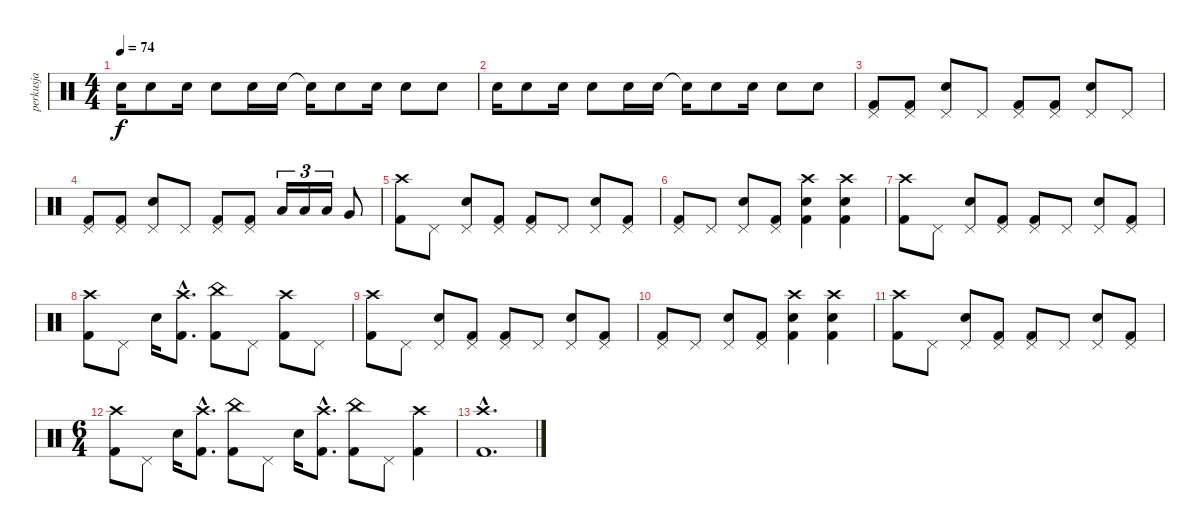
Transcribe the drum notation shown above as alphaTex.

\track ("perkusja" "perkusja") {instrument percussion}
\staff {score}
\articulation defaults
\ts (4 4)
\tempo 74
\clef neutral
\ks c "Electric Snare (hit)".16{dy f} "Electric Snare (hit)".8 "Electric Snare (hit)".16 "Electric Snare (hit)".8 "Electric Snare (hit)".16 "Electric Snare (hit)".16 "Snare (hit)"{t}.16 "Electric Snare (hit)".8 "Electric Snare (hit)".16 "Electric Snare (hit)".8 "Electric Snare (hit)".8
|
"Electric Snare (hit)".16 "Electric Snare (hit)".8 "Electric Snare (hit)".16 "Electric Snare (hit)".8 "Electric Snare (hit)".16 "Electric Snare (hit)".16 "Snare (hit)"{t}.16 "Electric Snare (hit)".8 "Electric Snare (hit)".16 "Electric Snare (hit)".8 "Electric Snare (hit)".8 |
("Pedal Hi-Hat (hit)" "Kick (hit) 2").8 ("Pedal Hi-Hat (hit)" "Kick (hit) 2").8 ("Pedal Hi-Hat (hit)" "Electric Snare (hit)").8 "Pedal Hi-Hat (hit)".8 ("Pedal Hi-Hat (hit)" "Kick (hit) 2").8 ("Pedal Hi-Hat (hit)" "Kick (hit) 2").8 ("Pedal Hi-Hat (hit)" "Electric Snare (hit)").8 "Pedal Hi-Hat (hit)".8 |
("Pedal Hi-Hat (hit)" "Kick (hit) 2").8 ("Pedal Hi-Hat (hit)" "Kick (hit) 2").8 ("Pedal Hi-Hat (hit)" "Electric Snare (hit)").8 "Pedal Hi-Hat (hit)".8 ("Pedal Hi-Hat (hit)" "Kick (hit) 2").8 ("Pedal Hi-Hat (hit)" "Kick (hit) 2").8 "Low Tom (hit)".16{tu (3 2)} "Low Tom (hit)".16{tu (3 2)} "Low Tom (hit)".16{tu (3 2)} "Very Low Tom (hit)".8 |
("Crash high (hit)" "Kick (hit) 2").8 "Pedal Hi-Hat (hit)".8 ("Pedal Hi-Hat (hit)" "Electric Snare (hit)").8 ("Pedal Hi-Hat (hit)" "Kick (hit) 2").8 ("Pedal Hi-Hat (hit)" "Kick (hit) 2").8 "Pedal Hi-Hat (hit)".8 ("Pedal Hi-Hat (hit)" "Electric Snare (hit)").8 ("Pedal Hi-Hat (hit)" "Kick (hit) 2").8 |
("Pedal Hi-Hat (hit)" "Kick (hit) 2").8 "Pedal Hi-Hat (hit)".8 ("Pedal Hi-Hat (hit)" "Electric Snare (hit)").8 ("Pedal Hi-Hat (hit)" "Kick (hit) 2").8 ("Crash high (hit)" "Kick (hit) 2" "Electric Snare (hit)").4 ("Crash high (hit)" "Electric Snare (hit)" "Kick (hit) 2").4 |
("Crash high (hit)" "Kick (hit) 2").8 "Pedal Hi-Hat (hit)".8 ("Pedal Hi-Hat (hit)" "Electric Snare (hit)").8 ("Pedal Hi-Hat (hit)" "Kick (hit) 2").8 ("Pedal Hi-Hat (hit)" "Kick (hit) 2").8 "Pedal Hi-Hat (hit)".8 ("Pedal Hi-Hat (hit)" "Electric Snare (hit)").8 ("Pedal Hi-Hat (hit)" "Kick (hit) 2").8 |
("Crash high (hit)" "Kick (hit) 2").8 "Pedal Hi-Hat (hit)".8 "Electric Snare (hit)".16 ("Kick (hit) 2"{hac} "Crash high (hit)"{hac}).8{d} ("China (hit)" "Kick (hit) 2").8 "Pedal Hi-Hat (hit)".8 ("Crash high (hit)" "Kick (hit) 2").8 "Pedal Hi-Hat (hit)".8 |
("Crash high (hit)" "Kick (hit) 2").8 "Pedal Hi-Hat (hit)".8 ("Pedal Hi-Hat (hit)" "Electric Snare (hit)").8 ("Pedal Hi-Hat (hit)" "Kick (hit) 2").8 ("Pedal Hi-Hat (hit)" "Kick (hit) 2").8 "Pedal Hi-Hat (hit)".8 ("Pedal Hi-Hat (hit)" "Electric Snare (hit)").8 ("Pedal Hi-Hat (hit)" "Kick (hit) 2").8 |
("Pedal Hi-Hat (hit)" "Kick (hit) 2").8 "Pedal Hi-Hat (hit)".8 ("Pedal Hi-Hat (hit)" "Electric Snare (hit)").8 ("Pedal Hi-Hat (hit)" "Kick (hit) 2").8 ("Crash high (hit)" "Kick (hit) 2" "Electric Snare (hit)").4 ("Crash high (hit)" "Electric Snare (hit)" "Kick (hit) 2").4 |
("Crash high (hit)" "Kick (hit) 2").8 "Pedal Hi-Hat (hit)".8 ("Pedal Hi-Hat (hit)" "Electric Snare (hit)").8 ("Pedal Hi-Hat (hit)" "Kick (hit) 2").8 ("Pedal Hi-Hat (hit)" "Kick (hit) 2").8 "Pedal Hi-Hat (hit)".8 ("Pedal Hi-Hat (hit)" "Electric Snare (hit)").8 ("Pedal Hi-Hat (hit)" "Kick (hit) 2").8 |
\ts (6 4)
("Crash high (hit)" "Kick (hit) 2").8 "Pedal Hi-Hat (hit)".8 "Electric Snare (hit)".16 ("Kick (hit) 2"{hac} "Crash high (hit)"{hac}).8{d} ("China (hit)" "Kick (hit) 2").8 "Pedal Hi-Hat (hit)".8 "Electric Snare (hit)".16 ("Kick (hit) 2"{hac} "Crash high (hit)"{hac}).8{d} ("China (hit)" "Kick (hit) 2").8 "Pedal Hi-Hat (hit)".8 ("Crash high (hit)" "Kick (hit) 2").4 |
("Crash high (hit)"{hac} "Kick (hit) 2"{hac}).1{d}
